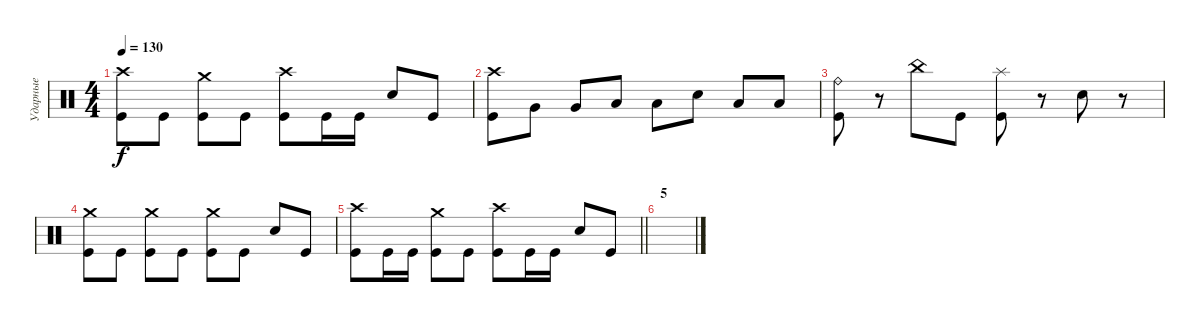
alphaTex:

\track ("Ударные" "Ударные") {instrument percussion}
\staff {score}
\articulation defaults
\ts (4 4)
\tempo 130
\clef neutral
\ks c
("Crash high (hit)" "Kick (hit)").8{dy f} "Kick (hit)".8 ("Crash medium (hit)" "Kick (hit)").8 "Kick (hit)".8 ("Crash high (hit)" "Kick (hit)").8 "Kick (hit)".16 "Kick (hit)".16 "Electric Snare (hit)".8 "Kick (hit)".8 |
("Crash high (hit)" "Kick (hit)").8 "Very Low Tom (hit)".8 "Very Low Tom (hit)".8 "Low Tom (hit)".8 "Low Tom (hit)".8 "Electric Snare (hit)".8 "Low Tom (hit)".8 "Low Tom (hit)".8 |
("Ride (bell)" "Kick (hit)").8 r.8 "China (hit)".8 "Kick (hit)".8 ("Splash (hit)" "Kick (hit)").8 r.8 "Electric Snare (hit)".8 r.8 |
("Crash medium (hit)" "Kick (hit)").8 "Kick (hit)".8 ("Crash medium (hit)" "Kick (hit)").8 "Kick (hit)".8 ("Crash medium (hit)" "Kick (hit)").8 "Kick (hit)".8 "Electric Snare (hit)".8 "Kick (hit)".8 |
\barLineRight lightlight
("Crash high (hit)" "Kick (hit)").8 "Kick (hit)".16 "Kick (hit)".16 ("Crash medium (hit)" "Kick (hit)").8 "Kick (hit)".8 ("Crash high (hit)" "Kick (hit)").8 "Kick (hit)".16 "Kick (hit)".16 "Electric Snare (hit)".8 "Kick (hit)".8 |
\section ("" "5")
